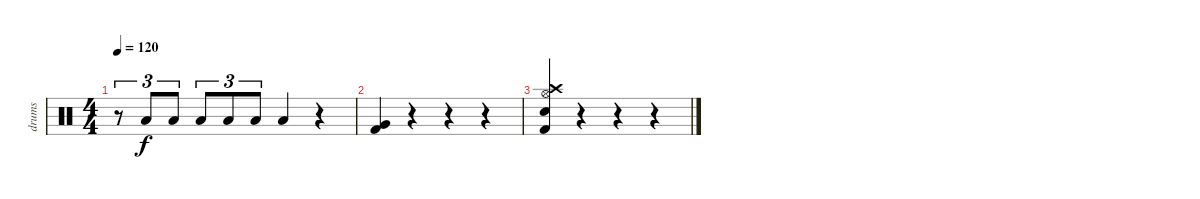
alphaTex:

\track ("drums" "drums") {instrument percussion}
\staff {score}
\articulation defaults
\ts (4 4)
\tempo 120
\clef neutral
\ks c
r.8{tu (3 2) dy f} "Low Tom (hit)".8{tu (3 2)} "Low Tom (hit)".8{tu (3 2)} "Low Tom (hit)".8{tu (3 2)} "Low Tom (hit)".8{tu (3 2)} "Low Tom (hit)".8{tu (3 2)} "Low Tom (hit)".4 r.4 |
("Very Low Tom (hit)" "Kick (hit) 2").4 r.4 r.4 r.4 |
("Hi-Hat (open)" "Crash high (hit)" "Electric Snare (hit)" "Kick (hit) 2").4 r.4 r.4 r.4
